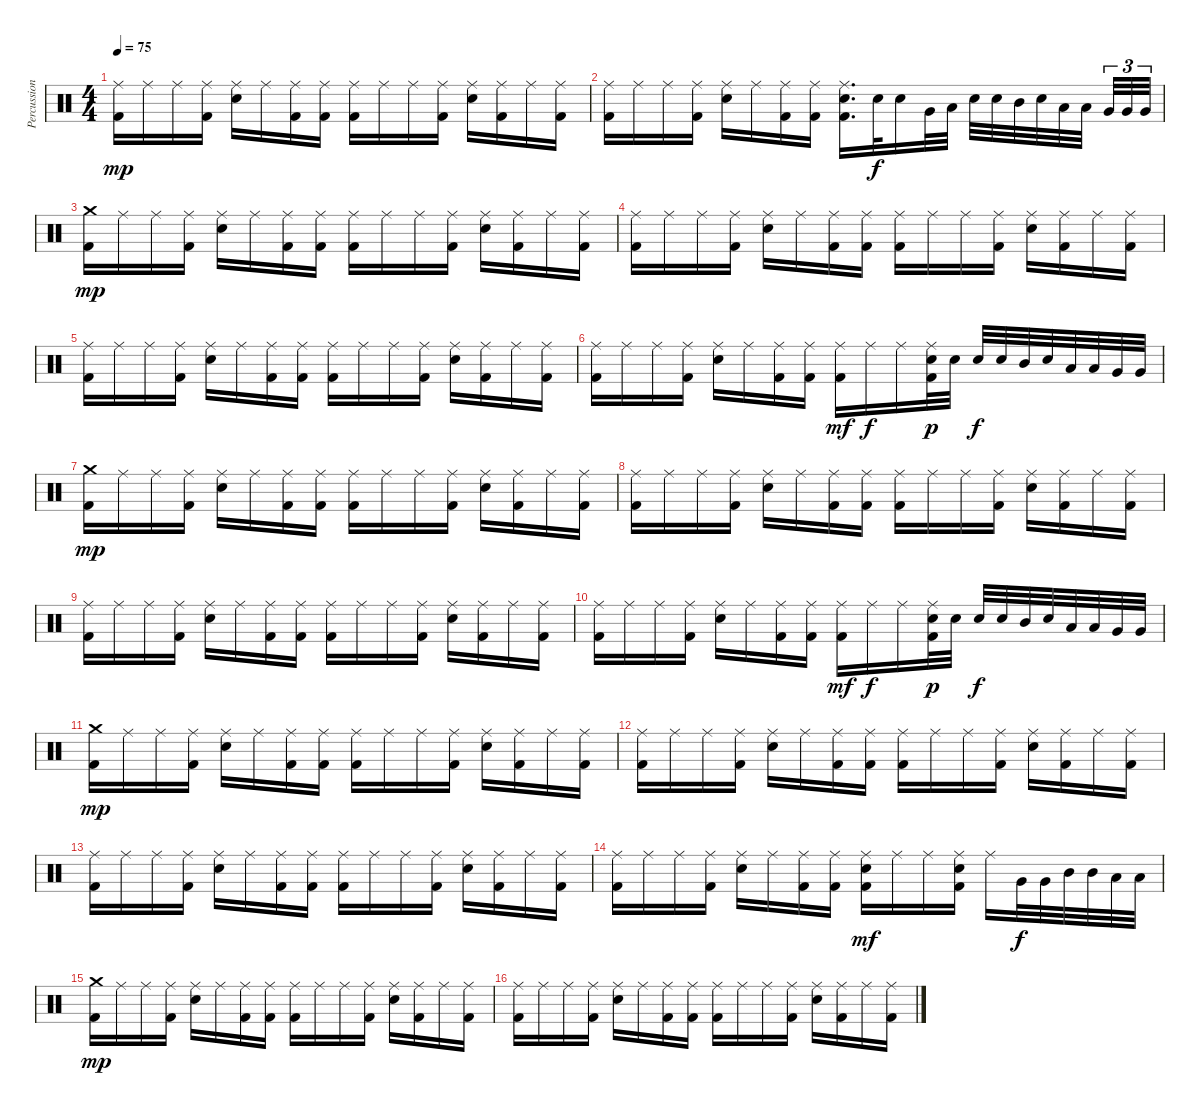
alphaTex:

\track ("Percussions" "Percussion") {instrument percussion}
\staff {score}
\articulation defaults
\ts (4 4)
\tempo 75
\clef neutral
\ks c
("Ride (middle)" "Kick (hit) 2").16{dy mp} "Ride (middle)".16 "Ride (middle)".16 ("Ride (middle)" "Kick (hit) 2").16 ("Ride (middle)" "Snare (hit) 2").16 "Ride (middle)".16 ("Ride (middle)" "Kick (hit) 2").16 ("Ride (middle)" "Kick (hit) 2").16 ("Ride (middle)" "Kick (hit) 2").16 "Ride (middle)".16 "Ride (middle)".16 ("Ride (middle)" "Kick (hit) 2").16 ("Ride (middle)" "Snare (hit) 2").16 ("Ride (middle)" "Kick (hit) 2").16 "Ride (middle)".16 ("Ride (middle)" "Kick (hit) 2").16 |
("Ride (middle)" "Kick (hit) 2").16 "Ride (middle)".16 "Ride (middle)".16 ("Ride (middle)" "Kick (hit) 2").16 ("Ride (middle)" "Snare (hit) 2").16 "Ride (middle)".16 ("Ride (middle)" "Kick (hit) 2").16 ("Ride (middle)" "Kick (hit) 2").16 ("Ride (middle)" "Snare (hit) 2" "Kick (hit) 2").16{d} "Snare (hit) 2".32{dy f} "Snare (hit) 2".16 "Very Low Tom (hit)".32 "Low Tom (hit)".32 "Snare (hit) 2".32 "Snare (hit) 2".32 "Mid Tom (hit)".32 "Snare (hit) 2".32 "Low Tom (hit)".32 "Low Tom (hit)".32{beam splitsecondary} "Very Low Tom (hit)".32{tu (3 2)} "Very Low Tom (hit)".32{tu (3 2)} "Very Low Tom (hit)".32{tu (3 2)} |
("Crash medium (hit)" "Kick (hit) 2").16{dy mp} "Ride (middle)".16 "Ride (middle)".16 ("Ride (middle)" "Kick (hit) 2").16 ("Ride (middle)" "Snare (hit) 2").16 "Ride (middle)".16 ("Ride (middle)" "Kick (hit) 2").16 ("Ride (middle)" "Kick (hit) 2").16 ("Ride (middle)" "Kick (hit) 2").16 "Ride (middle)".16 "Ride (middle)".16 ("Ride (middle)" "Kick (hit) 2").16 ("Ride (middle)" "Snare (hit) 2").16 ("Ride (middle)" "Kick (hit) 2").16 "Ride (middle)".16 ("Ride (middle)" "Kick (hit) 2").16 |
("Ride (middle)" "Kick (hit) 2").16 "Ride (middle)".16 "Ride (middle)".16 ("Ride (middle)" "Kick (hit) 2").16 ("Ride (middle)" "Snare (hit) 2").16 "Ride (middle)".16 ("Ride (middle)" "Kick (hit) 2").16 ("Ride (middle)" "Kick (hit) 2").16 ("Ride (middle)" "Kick (hit) 2").16 "Ride (middle)".16 "Ride (middle)".16 ("Ride (middle)" "Kick (hit) 2").16 ("Ride (middle)" "Snare (hit) 2").16 ("Ride (middle)" "Kick (hit) 2").16 "Ride (middle)".16 ("Ride (middle)" "Kick (hit) 2").16 |
("Ride (middle)" "Kick (hit) 2").16 "Ride (middle)".16 "Ride (middle)".16 ("Ride (middle)" "Kick (hit) 2").16 ("Ride (middle)" "Snare (hit) 2").16 "Ride (middle)".16 ("Ride (middle)" "Kick (hit) 2").16 ("Ride (middle)" "Kick (hit) 2").16 ("Ride (middle)" "Kick (hit) 2").16 "Ride (middle)".16 "Ride (middle)".16 ("Ride (middle)" "Kick (hit) 2").16 ("Ride (middle)" "Snare (hit) 2").16 ("Ride (middle)" "Kick (hit) 2").16 "Ride (middle)".16 ("Ride (middle)" "Kick (hit) 2").16 |
("Ride (middle)" "Kick (hit) 2").16 "Ride (middle)".16 "Ride (middle)".16 ("Ride (middle)" "Kick (hit) 2").16 ("Ride (middle)" "Snare (hit) 2").16 "Ride (middle)".16 ("Ride (middle)" "Kick (hit) 2").16 ("Ride (middle)" "Kick (hit) 2").16 ("Ride (middle)" "Kick (hit) 2").16{dy mf} "Ride (middle)".16{dy f} "Ride (middle)".16 ("Ride (middle)" "Snare (hit) 2" "Kick (hit) 2").32{dy p} "Snare (hit) 2".32 "Snare (hit) 2".32{dy f} "Snare (hit) 2".32 "Mid Tom (hit)".32 "Snare (hit) 2".32 "Low Tom (hit)".32 "Low Tom (hit)".32 "Very Low Tom (hit)".32 "Very Low Tom (hit)".32 |
("Crash medium (hit)" "Kick (hit) 2").16{dy mp} "Ride (middle)".16 "Ride (middle)".16 ("Ride (middle)" "Kick (hit) 2").16 ("Ride (middle)" "Snare (hit) 2").16 "Ride (middle)".16 ("Ride (middle)" "Kick (hit) 2").16 ("Ride (middle)" "Kick (hit) 2").16 ("Ride (middle)" "Kick (hit) 2").16 "Ride (middle)".16 "Ride (middle)".16 ("Ride (middle)" "Kick (hit) 2").16 ("Ride (middle)" "Snare (hit) 2").16 ("Ride (middle)" "Kick (hit) 2").16 "Ride (middle)".16 ("Ride (middle)" "Kick (hit) 2").16 |
("Ride (middle)" "Kick (hit) 2").16 "Ride (middle)".16 "Ride (middle)".16 ("Ride (middle)" "Kick (hit) 2").16 ("Ride (middle)" "Snare (hit) 2").16 "Ride (middle)".16 ("Ride (middle)" "Kick (hit) 2").16 ("Ride (middle)" "Kick (hit) 2").16 ("Ride (middle)" "Kick (hit) 2").16 "Ride (middle)".16 "Ride (middle)".16 ("Ride (middle)" "Kick (hit) 2").16 ("Ride (middle)" "Snare (hit) 2").16 ("Ride (middle)" "Kick (hit) 2").16 "Ride (middle)".16 ("Ride (middle)" "Kick (hit) 2").16 |
("Ride (middle)" "Kick (hit) 2").16 "Ride (middle)".16 "Ride (middle)".16 ("Ride (middle)" "Kick (hit) 2").16 ("Ride (middle)" "Snare (hit) 2").16 "Ride (middle)".16 ("Ride (middle)" "Kick (hit) 2").16 ("Ride (middle)" "Kick (hit) 2").16 ("Ride (middle)" "Kick (hit) 2").16 "Ride (middle)".16 "Ride (middle)".16 ("Ride (middle)" "Kick (hit) 2").16 ("Ride (middle)" "Snare (hit) 2").16 ("Ride (middle)" "Kick (hit) 2").16 "Ride (middle)".16 ("Ride (middle)" "Kick (hit) 2").16 |
("Ride (middle)" "Kick (hit) 2").16 "Ride (middle)".16 "Ride (middle)".16 ("Ride (middle)" "Kick (hit) 2").16 ("Ride (middle)" "Snare (hit) 2").16 "Ride (middle)".16 ("Ride (middle)" "Kick (hit) 2").16 ("Ride (middle)" "Kick (hit) 2").16 ("Ride (middle)" "Kick (hit) 2").16{dy mf} "Ride (middle)".16{dy f} "Ride (middle)".16 ("Ride (middle)" "Snare (hit) 2" "Kick (hit) 2").32{dy p} "Snare (hit) 2".32 "Snare (hit) 2".32{dy f} "Snare (hit) 2".32 "Mid Tom (hit)".32 "Snare (hit) 2".32 "Low Tom (hit)".32 "Low Tom (hit)".32 "Very Low Tom (hit)".32 "Very Low Tom (hit)".32 |
("Crash medium (hit)" "Kick (hit) 2").16{dy mp} "Ride (middle)".16 "Ride (middle)".16 ("Ride (middle)" "Kick (hit) 2").16 ("Ride (middle)" "Snare (hit) 2").16 "Ride (middle)".16 ("Ride (middle)" "Kick (hit) 2").16 ("Ride (middle)" "Kick (hit) 2").16 ("Ride (middle)" "Kick (hit) 2").16 "Ride (middle)".16 "Ride (middle)".16 ("Ride (middle)" "Kick (hit) 2").16 ("Ride (middle)" "Snare (hit) 2").16 ("Ride (middle)" "Kick (hit) 2").16 "Ride (middle)".16 ("Ride (middle)" "Kick (hit) 2").16 |
("Ride (middle)" "Kick (hit) 2").16 "Ride (middle)".16 "Ride (middle)".16 ("Ride (middle)" "Kick (hit) 2").16 ("Ride (middle)" "Snare (hit) 2").16 "Ride (middle)".16 ("Ride (middle)" "Kick (hit) 2").16 ("Ride (middle)" "Kick (hit) 2").16 ("Ride (middle)" "Kick (hit) 2").16 "Ride (middle)".16 "Ride (middle)".16 ("Ride (middle)" "Kick (hit) 2").16 ("Ride (middle)" "Snare (hit) 2").16 ("Ride (middle)" "Kick (hit) 2").16 "Ride (middle)".16 ("Ride (middle)" "Kick (hit) 2").16 |
("Ride (middle)" "Kick (hit) 2").16 "Ride (middle)".16 "Ride (middle)".16 ("Ride (middle)" "Kick (hit) 2").16 ("Ride (middle)" "Snare (hit) 2").16 "Ride (middle)".16 ("Ride (middle)" "Kick (hit) 2").16 ("Ride (middle)" "Kick (hit) 2").16 ("Ride (middle)" "Kick (hit) 2").16 "Ride (middle)".16 "Ride (middle)".16 ("Ride (middle)" "Kick (hit) 2").16 ("Ride (middle)" "Snare (hit) 2").16 ("Ride (middle)" "Kick (hit) 2").16 "Ride (middle)".16 ("Ride (middle)" "Kick (hit) 2").16 |
("Ride (middle)" "Kick (hit) 2").16 "Ride (middle)".16 "Ride (middle)".16 ("Ride (middle)" "Kick (hit) 2").16 ("Ride (middle)" "Snare (hit) 2").16 "Ride (middle)".16 ("Ride (middle)" "Kick (hit) 2").16 ("Ride (middle)" "Kick (hit) 2").16 ("Ride (middle)" "Snare (hit) 2" "Kick (hit) 2").16{dy mf} "Ride (middle)".16 "Ride (middle)".16 ("Ride (middle)" "Snare (hit) 2" "Kick (hit) 2").16 "Ride (middle)".16 "Very Low Tom (hit)".32{dy f} "Very Low Tom (hit)".32 "Mid Tom (hit)".32 "Mid Tom (hit)".32 "Low Tom (hit)".32 "Low Tom (hit)".32 |
("Crash medium (hit)" "Kick (hit) 2").16{dy mp} "Ride (middle)".16 "Ride (middle)".16 ("Ride (middle)" "Kick (hit) 2").16 ("Ride (middle)" "Snare (hit) 2").16 "Ride (middle)".16 ("Ride (middle)" "Kick (hit) 2").16 ("Ride (middle)" "Kick (hit) 2").16 ("Ride (middle)" "Kick (hit) 2").16 "Ride (middle)".16 "Ride (middle)".16 ("Ride (middle)" "Kick (hit) 2").16 ("Ride (middle)" "Snare (hit) 2").16 ("Ride (middle)" "Kick (hit) 2").16 "Ride (middle)".16 ("Ride (middle)" "Kick (hit) 2").16 |
("Ride (middle)" "Kick (hit) 2").16 "Ride (middle)".16 "Ride (middle)".16 ("Ride (middle)" "Kick (hit) 2").16 ("Ride (middle)" "Snare (hit) 2").16 "Ride (middle)".16 ("Ride (middle)" "Kick (hit) 2").16 ("Ride (middle)" "Kick (hit) 2").16 ("Ride (middle)" "Kick (hit) 2").16 "Ride (middle)".16 "Ride (middle)".16 ("Ride (middle)" "Kick (hit) 2").16 ("Ride (middle)" "Snare (hit) 2").16 ("Ride (middle)" "Kick (hit) 2").16 "Ride (middle)".16 ("Ride (middle)" "Kick (hit) 2").16
